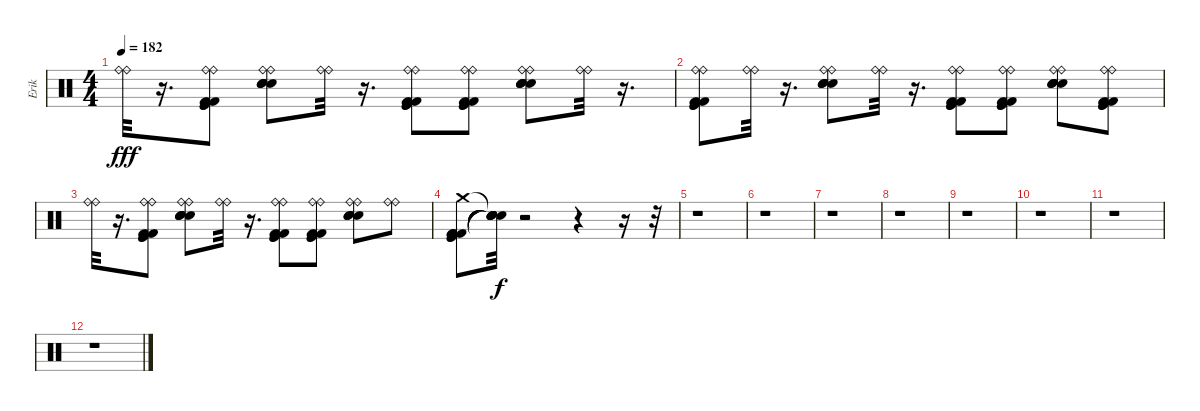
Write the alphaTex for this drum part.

\track ("Erik" "Erik") {instrument percussion}
\staff {score}
\articulation defaults
\ts (4 4)
\tempo 182
\clef neutral
\ks c
("Ride (bell)" "Ride (bell)").32{dy fff} r.16{d} ("Ride (bell)" "Ride (bell)" "Kick (hit) 2" "Kick (hit) 2" "Kick (hit)" "Kick (hit)").8 ("Ride (bell)" "Ride (bell)" "Electric Snare (hit)" "Electric Snare (hit)" "Electric Snare (hit)" "Snare (hit) 2").8 ("Ride (bell)" "Ride (bell)").32 r.16{d} ("Ride (bell)" "Ride (bell)" "Kick (hit) 2" "Kick (hit) 2" "Kick (hit)" "Kick (hit)").8 ("Ride (bell)" "Ride (bell)" "Kick (hit) 2" "Kick (hit) 2" "Kick (hit)" "Kick (hit)").8 ("Ride (bell)" "Ride (bell)" "Electric Snare (hit)" "Electric Snare (hit)" "Snare (hit) 2" "Snare (hit) 2").8 ("Ride (bell)" "Ride (bell)").32 r.16{d} |
("Ride (bell)" "Ride (bell)" "Kick (hit) 2" "Kick (hit) 2" "Kick (hit)" "Kick (hit)").8 ("Ride (bell)" "Ride (bell)").32 r.16{d} ("Ride (bell)" "Ride (bell)" "Electric Snare (hit)" "Electric Snare (hit)" "Electric Snare (hit)" "Snare (hit) 2").8 ("Ride (bell)" "Ride (bell)").32 r.16{d} ("Ride (bell)" "Ride (bell)" "Kick (hit) 2" "Kick (hit) 2" "Kick (hit)" "Kick (hit)").8 ("Ride (bell)" "Ride (bell)" "Kick (hit) 2" "Kick (hit) 2" "Kick (hit)" "Kick (hit)").8 ("Ride (bell)" "Ride (bell)" "Electric Snare (hit)" "Electric Snare (hit)" "Snare (hit) 2" "Snare (hit) 2").8 ("Ride (bell)" "Ride (bell)" "Kick (hit) 2" "Kick (hit) 2" "Kick (hit)" "Kick (hit)").8 |
("Ride (bell)" "Ride (bell)").32 r.16{d} ("Ride (bell)" "Ride (bell)" "Kick (hit) 2" "Kick (hit) 2" "Kick (hit)" "Kick (hit)").8 ("Ride (bell)" "Ride (bell)" "Electric Snare (hit)" "Electric Snare (hit)" "Electric Snare (hit)" "Snare (hit) 2").8 ("Ride (bell)" "Ride (bell)").32 r.16{d} ("Ride (bell)" "Ride (bell)" "Kick (hit) 2" "Kick (hit) 2" "Kick (hit)" "Kick (hit)").8 ("Ride (bell)" "Ride (bell)" "Kick (hit) 2" "Kick (hit) 2" "Kick (hit)" "Kick (hit)").8 ("Ride (bell)" "Ride (bell)" "Electric Snare (hit)" "Electric Snare (hit)" "Snare (hit) 2" "Snare (hit) 2").8 ("Ride (bell)" "Ride (bell)").8 |
("Kick (hit) 2" "Kick (hit) 2" "Kick (hit) 2" "Kick (hit)" "Kick (hit)" "Crash medium (hit)").8 ("Snare (hit)"{t} "Snare (hit)"{t} "Snare (hit)"{t} "Snare (hit)"{t} "Snare (hit)"{t} "Snare (hit)"{t}).32{dy f} r.2 r.4 r.16 r.32 |
r.1 |
r.1 |
r.1 |
r.1 |
r.1 |
r.1 |
r.1 |
r.1
